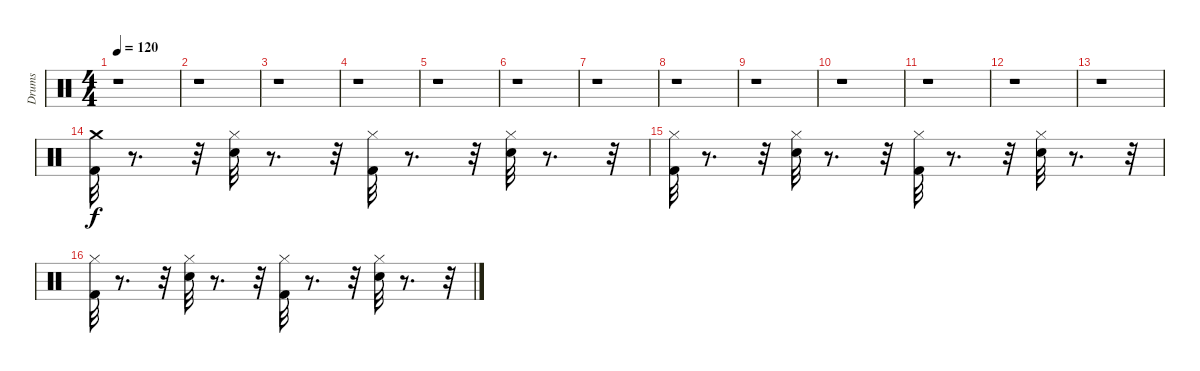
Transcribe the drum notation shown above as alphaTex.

\track ("Drums" "Drums") {instrument percussion}
\staff {score}
\articulation defaults
\ts (4 4)
\tempo 120
\clef neutral
\ks c
r.1{dy f} |
r.1 |
r.1 |
r.1 |
r.1 |
r.1 |
r.1 |
r.1 |
r.1 |
r.1 |
r.1 |
r.1 |
r.1 |
("Kick (hit) 2" "Crash medium (hit)").32 r.8{d} r.32 ("Snare (hit) 2" "Hi-Hat (closed)").32 r.8{d} r.32 ("Kick (hit) 2" "Hi-Hat (closed)").32 r.8{d} r.32 ("Snare (hit) 2" "Hi-Hat (closed)").32 r.8{d} r.32 |
("Kick (hit) 2" "Hi-Hat (closed)").32 r.8{d} r.32 ("Snare (hit) 2" "Hi-Hat (closed)").32 r.8{d} r.32 ("Kick (hit) 2" "Hi-Hat (closed)").32 r.8{d} r.32 ("Snare (hit) 2" "Hi-Hat (closed)").32 r.8{d} r.32 |
("Kick (hit) 2" "Hi-Hat (closed)").32 r.8{d} r.32 ("Snare (hit) 2" "Hi-Hat (closed)").32 r.8{d} r.32 ("Kick (hit) 2" "Hi-Hat (closed)").32 r.8{d} r.32 ("Snare (hit) 2" "Hi-Hat (closed)").32 r.8{d} r.32
